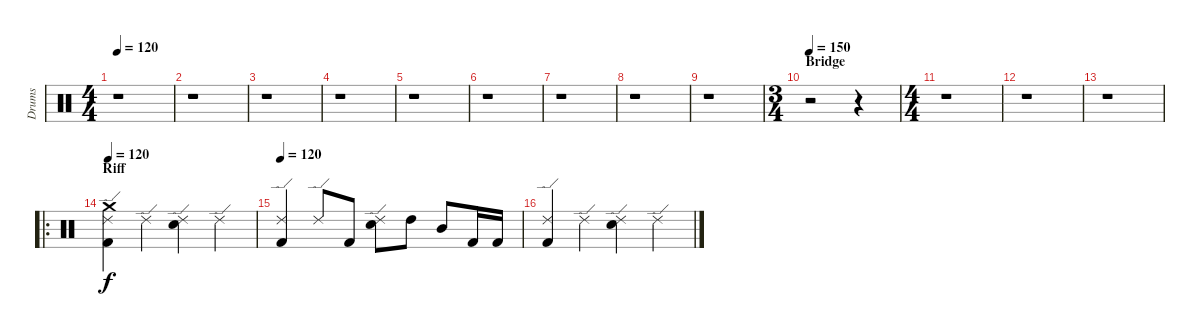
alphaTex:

\track ("Drums" "Drums") {instrument percussion}
\staff {score}
\articulation defaults
\ts (4 4)
\tempo 120
\clef neutral
\ks c
r.1{dy f} |
r.1 |
r.1 |
r.1 |
r.1 |
r.1 |
r.1 |
r.1 |
r.1 |
\ts (3 4)
\section ("" "Bridge")
\tempo 150
r.2 r.4 |
\ts (4 4)
r.1 |
r.1 |
r.1 |
\ro
\section ("" "Riff")
\tempo 120
("Kick (hit) 2" "Ride (edge) 2" "Crash medium (hit)").4 "Ride (edge) 2".4 ("Snare (hit) 2" "Ride (edge) 2").4 "Ride (edge) 2".4 |
\tempo 120
("Kick (hit) 2" "Ride (edge) 2").4 "Ride (edge) 2".8 "Kick (hit) 2".8 ("Snare (hit) 2" "Ride (edge) 2").8 "High Tom (hit)".8 "Mid Tom (hit)".8 "Kick (hit) 2".16 "Kick (hit) 2".16 |
("Kick (hit) 2" "Ride (edge) 2").4 "Ride (edge) 2".4 ("Snare (hit) 2" "Ride (edge) 2").4 "Ride (edge) 2".4
